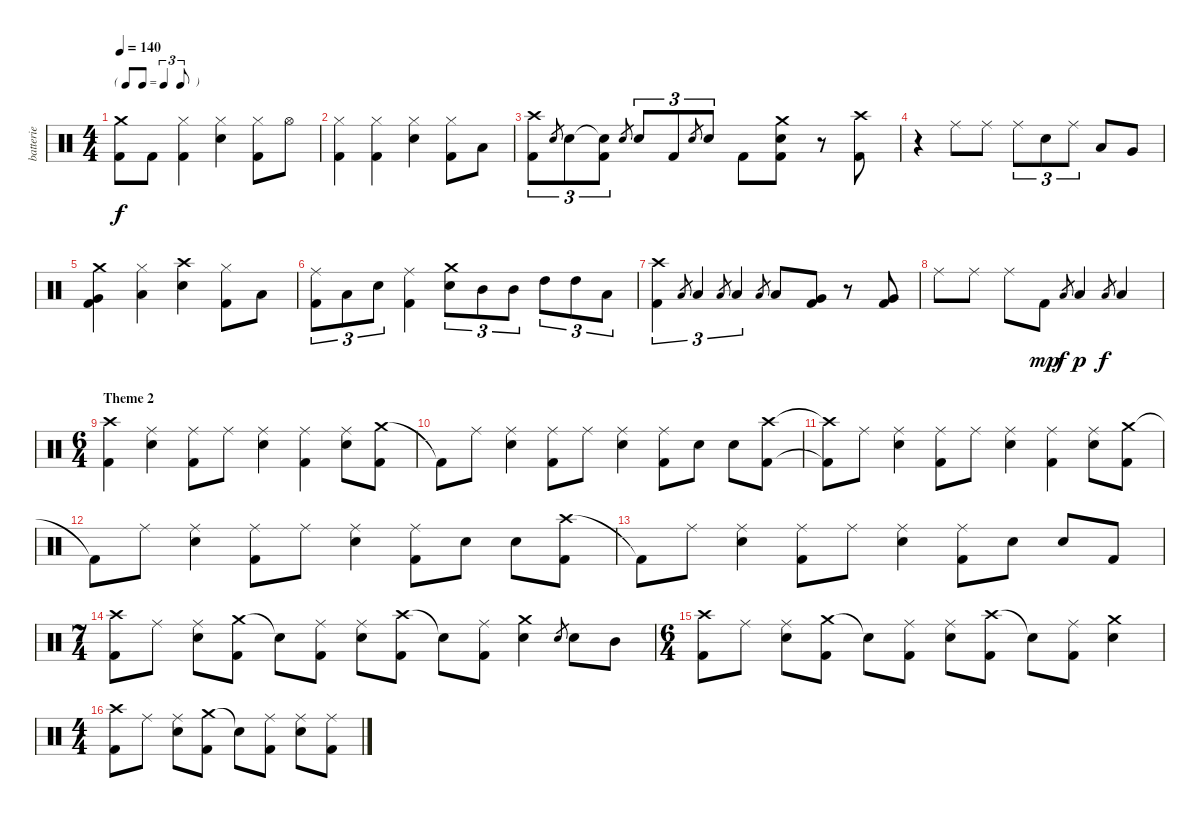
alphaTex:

\track ("batterie" "batterie") {instrument percussion}
\staff {score}
\articulation defaults
\ts (4 4)
\tf triplet8th
\tempo 140
\clef neutral
\ks c
("Crash medium (hit)" "Kick (hit) 2").8{dy f} "Kick (hit) 2".8 ("Hi-Hat (closed)" "Kick (hit) 2").4 ("Hi-Hat (closed)" "Electric Snare (hit)").4 ("Hi-Hat (closed)" "Kick (hit) 2").8 "Hi-Hat (open)".8 |
("Hi-Hat (closed)" "Kick (hit) 2").4 ("Hi-Hat (closed)" "Kick (hit) 2").4 ("Hi-Hat (closed)" "Electric Snare (hit)").4 ("Hi-Hat (closed)" "Kick (hit) 2").8 "Low Tom (hit)".8 |
("Crash high (hit)" "Kick (hit) 2").8{tu (3 2)} "Electric Snare (hit)".8{gr} "Electric Snare (hit)".8{tu (3 2)} ("Snare (hit)"{t} "Kick (hit) 2").8{tu (3 2)} "Electric Snare (hit)".8{gr} "Electric Snare (hit)".8{tu (3 2)} "Kick (hit) 2".8{tu (3 2)} "Electric Snare (hit)".8{gr} "Electric Snare (hit)".8{tu (3 2)} "Kick (hit) 2".8 ("Crash medium (hit)" "Electric Snare (hit)" "Kick (hit) 2").8 r.8 ("Crash high (hit)" "Kick (hit) 2").8 |
r.4 "Ride (middle)".8 "Ride (middle)".8 "Ride (middle)".8{tu (3 2)} "Electric Snare (hit)".8{tu (3 2)} "Ride (middle)".8{tu (3 2)} "Low Tom (hit)".8 "Very Low Tom (hit)".8 |
("Crash medium (hit)" "Very Low Tom (hit)" "Kick (hit) 2").4 ("Hi-Hat (closed)" "Low Tom (hit)").4 ("Crash high (hit)" "Electric Snare (hit)").4 ("Hi-Hat (closed)" "Kick (hit) 2").8 "Low Tom (hit)".8 |
("Ride (middle)" "Kick (hit) 2").8{tu (3 2)} "Low Tom (hit)".8{tu (3 2)} "Electric Snare (hit)".8{tu (3 2)} ("Ride (middle)" "Kick (hit) 2").4 ("Crash medium (hit)" "Electric Snare (hit)").8{tu (3 2)} "Mid Tom (hit)".8{tu (3 2)} "Mid Tom (hit)".8{tu (3 2)} "High Tom (hit)".8{tu (3 2)} "High Tom (hit)".8{tu (3 2)} "Low Tom (hit)".8{tu (3 2)} |
("Crash high (hit)" "Kick (hit) 2").4{tu (3 2)} "Low Tom (hit)".8{gr} "Low Tom (hit)".4{tu (3 2)} "Low Tom (hit)".8{gr} "Low Tom (hit)".4{tu (3 2)} "Low Tom (hit)".8{gr} "Low Tom (hit)".8 ("Very Low Tom (hit)" "Kick (hit) 2").8 r.8 ("Very Low Tom (hit)" "Kick (hit) 2").8 |
"Ride (middle)".8 "Ride (middle)".8 "Ride (middle)".8 "Kick (hit) 2".8{dy mp} "Low Tom (hit)".8{gr dy f} "Low Tom (hit)".4{dy p} "Low Tom (hit)".8{gr dy f} "Low Tom (hit)".4 |
\ts (6 4)
\section ("" "Theme 2")
("Crash high (hit)" "Kick (hit) 2").4 ("Ride (middle)" "Electric Snare (hit)").4 ("Ride (middle)" "Kick (hit) 2").8 "Ride (middle)".8 ("Ride (middle)" "Electric Snare (hit)").4 ("Ride (middle)" "Kick (hit) 2").4 ("Ride (middle)" "Electric Snare (hit)").8 ("Crash medium (hit)" "Kick (hit) 2").8 |
"Kick (hit) 2"{t}.8 "Ride (middle)".8 ("Ride (middle)" "Electric Snare (hit)").4 ("Ride (middle)" "Kick (hit) 2").8 "Ride (middle)".8 ("Ride (middle)" "Electric Snare (hit)").4 ("Ride (middle)" "Kick (hit) 2").8 "Electric Snare (hit)".8 "Electric Snare (hit)".8 ("Crash high (hit)" "Kick (hit) 2").8 |
("Crash high (hit)"{t} "Kick (hit) 2"{t}).8 "Ride (middle)".8 ("Ride (middle)" "Electric Snare (hit)").4 ("Ride (middle)" "Kick (hit) 2").8 "Ride (middle)".8 ("Ride (middle)" "Electric Snare (hit)").4 ("Ride (middle)" "Kick (hit) 2").4 ("Ride (middle)" "Electric Snare (hit)").8 ("Crash medium (hit)" "Kick (hit) 2").8 |
"Kick (hit) 2"{t}.8 "Ride (middle)".8 ("Ride (middle)" "Electric Snare (hit)").4 ("Ride (middle)" "Kick (hit) 2").8 "Ride (middle)".8 ("Ride (middle)" "Electric Snare (hit)").4 ("Ride (middle)" "Kick (hit) 2").8 "Electric Snare (hit)".8 "Electric Snare (hit)".8 ("Crash high (hit)" "Kick (hit) 2").8 |
"Kick (hit) 2"{t}.8 "Ride (middle)".8 ("Ride (middle)" "Electric Snare (hit)").4 ("Ride (middle)" "Kick (hit) 2").8 "Ride (middle)".8 ("Ride (middle)" "Electric Snare (hit)").4 ("Ride (middle)" "Kick (hit) 2").8 "Electric Snare (hit)".8 "Electric Snare (hit)".8 "Kick (hit) 2".8 |
\ts (7 4)
("Crash high (hit)" "Kick (hit) 2").8 "Ride (middle)".8 ("Ride (middle)" "Electric Snare (hit)").8 ("Crash medium (hit)" "Kick (hit) 2").8 "Snare (hit)"{t}.8 ("Ride (middle)" "Kick (hit) 2").8 ("Ride (middle)" "Electric Snare (hit)").8 ("Crash high (hit)" "Kick (hit) 2").8 "Snare (hit)"{t}.8 ("Ride (middle)" "Kick (hit) 2").8 ("Crash medium (hit)" "Electric Snare (hit)").4 "Electric Snare (hit)".8{gr} "Electric Snare (hit)".8 "Mid Tom (hit)".8 |
\ts (6 4)
("Crash high (hit)" "Kick (hit) 2").8 "Ride (middle)".8 ("Ride (middle)" "Electric Snare (hit)").8 ("Crash medium (hit)" "Kick (hit) 2").8 "Snare (hit)"{t}.8 ("Ride (middle)" "Kick (hit) 2").8 ("Ride (middle)" "Electric Snare (hit)").8 ("Crash high (hit)" "Kick (hit) 2").8 "Snare (hit)"{t}.8 ("Ride (middle)" "Kick (hit) 2").8 ("Crash medium (hit)" "Electric Snare (hit)").4 |
\ts (4 4)
("Crash high (hit)" "Kick (hit) 2").8 "Ride (middle)".8 ("Ride (middle)" "Electric Snare (hit)").8 ("Crash medium (hit)" "Kick (hit) 2").8 "Snare (hit)"{t}.8 ("Ride (middle)" "Kick (hit) 2").8 ("Ride (middle)" "Electric Snare (hit)").8 ("Ride (middle)" "Kick (hit) 2").8
